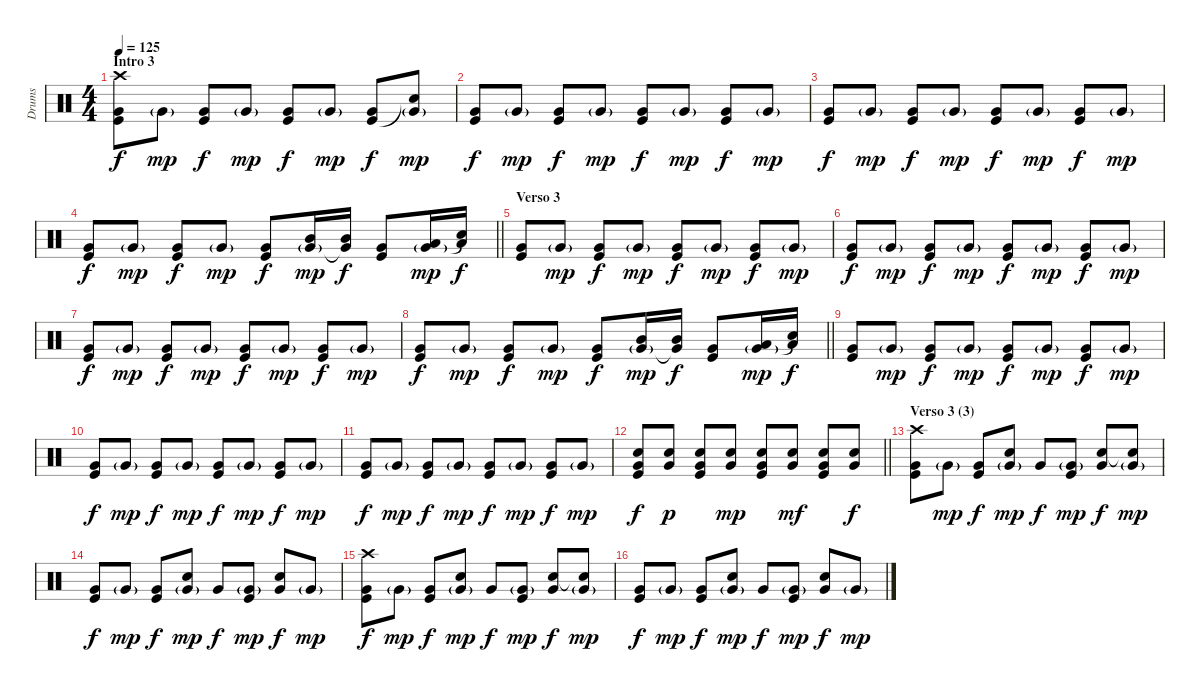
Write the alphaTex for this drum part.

\track ("Drums" "Drums") {instrument percussion}
\staff {score}
\articulation defaults
\ts (4 4)
\section ("" "Intro 3")
\tempo 125
\clef neutral
\ks c
("Very Low Tom (hit)" "Kick (hit)" "Crash high (hit)").8{dy f} "Very Low Tom (hit)"{g}.8{dy mp} ("Very Low Tom (hit)" "Kick (hit)").8{dy f} "Very Low Tom (hit)"{g}.8{dy mp} ("Very Low Tom (hit)" "Kick (hit)").8{dy f} "Very Low Tom (hit)"{g}.8{dy mp} ("Very Low Tom (hit)" "Kick (hit)").8{dy f} ("Very Low Tom (hit)"{g} "Snare (hit)"{t}).8{dy mp} |
("Very Low Tom (hit)" "Kick (hit)").8{dy f} "Very Low Tom (hit)"{g}.8{dy mp} ("Very Low Tom (hit)" "Kick (hit)").8{dy f} "Very Low Tom (hit)"{g}.8{dy mp} ("Very Low Tom (hit)" "Kick (hit)").8{dy f} "Very Low Tom (hit)"{g}.8{dy mp} ("Very Low Tom (hit)" "Kick (hit)").8{dy f} "Very Low Tom (hit)"{g}.8{dy mp} |
("Very Low Tom (hit)" "Kick (hit)").8{dy f} "Very Low Tom (hit)"{g}.8{dy mp} ("Very Low Tom (hit)" "Kick (hit)").8{dy f} "Very Low Tom (hit)"{g}.8{dy mp} ("Very Low Tom (hit)" "Kick (hit)").8{dy f} "Very Low Tom (hit)"{g}.8{dy mp} ("Very Low Tom (hit)" "Kick (hit)").8{dy f} "Very Low Tom (hit)"{g}.8{dy mp} |
\barLineRight lightlight
("Very Low Tom (hit)" "Kick (hit)").8{dy f} "Very Low Tom (hit)"{g}.8{dy mp} ("Very Low Tom (hit)" "Kick (hit)").8{dy f} "Very Low Tom (hit)"{g}.8{dy mp} ("Very Low Tom (hit)" "Kick (hit)").8{dy f} ("Very Low Tom (hit)"{g} "Mid Tom (hit)").16{dy mp} ("Very Low Tom (hit)"{t} "Mid Tom (hit)").16{dy f} ("Very Low Tom (hit)" "Kick (hit)").8 ("Very Low Tom (hit)"{g} "Low Tom (hit)").16{dy mp} ("Snare (hit)"{t} "Low Tom (hit)").16{dy f} |
\section ("" "Verso 3")
("Very Low Tom (hit)" "Kick (hit)").8 "Very Low Tom (hit)"{g}.8{dy mp} ("Very Low Tom (hit)" "Kick (hit)").8{dy f} "Very Low Tom (hit)"{g}.8{dy mp} ("Very Low Tom (hit)" "Kick (hit)").8{dy f} "Very Low Tom (hit)"{g}.8{dy mp} ("Very Low Tom (hit)" "Kick (hit)").8{dy f} "Very Low Tom (hit)"{g}.8{dy mp} |
("Very Low Tom (hit)" "Kick (hit)").8{dy f} "Very Low Tom (hit)"{g}.8{dy mp} ("Very Low Tom (hit)" "Kick (hit)").8{dy f} "Very Low Tom (hit)"{g}.8{dy mp} ("Very Low Tom (hit)" "Kick (hit)").8{dy f} "Very Low Tom (hit)"{g}.8{dy mp} ("Very Low Tom (hit)" "Kick (hit)").8{dy f} "Very Low Tom (hit)"{g}.8{dy mp} |
("Very Low Tom (hit)" "Kick (hit)").8{dy f} "Very Low Tom (hit)"{g}.8{dy mp} ("Very Low Tom (hit)" "Kick (hit)").8{dy f} "Very Low Tom (hit)"{g}.8{dy mp} ("Very Low Tom (hit)" "Kick (hit)").8{dy f} "Very Low Tom (hit)"{g}.8{dy mp} ("Very Low Tom (hit)" "Kick (hit)").8{dy f} "Very Low Tom (hit)"{g}.8{dy mp} |
\barLineRight lightlight
("Very Low Tom (hit)" "Kick (hit)").8{dy f} "Very Low Tom (hit)"{g}.8{dy mp} ("Very Low Tom (hit)" "Kick (hit)").8{dy f} "Very Low Tom (hit)"{g}.8{dy mp} ("Very Low Tom (hit)" "Kick (hit)").8{dy f} ("Very Low Tom (hit)"{g} "Mid Tom (hit)").16{dy mp} ("Very Low Tom (hit)"{t} "Mid Tom (hit)").16{dy f} ("Very Low Tom (hit)" "Kick (hit)").8 ("Very Low Tom (hit)"{g} "Low Tom (hit)").16{dy mp} ("Snare (hit)"{t} "Low Tom (hit)").16{dy f} |
("Very Low Tom (hit)" "Kick (hit)").8 "Very Low Tom (hit)"{g}.8{dy mp} ("Very Low Tom (hit)" "Kick (hit)").8{dy f} "Very Low Tom (hit)"{g}.8{dy mp} ("Very Low Tom (hit)" "Kick (hit)").8{dy f} "Very Low Tom (hit)"{g}.8{dy mp} ("Very Low Tom (hit)" "Kick (hit)").8{dy f} "Very Low Tom (hit)"{g}.8{dy mp} |
("Very Low Tom (hit)" "Kick (hit)").8{dy f} "Very Low Tom (hit)"{g}.8{dy mp} ("Very Low Tom (hit)" "Kick (hit)").8{dy f} "Very Low Tom (hit)"{g}.8{dy mp} ("Very Low Tom (hit)" "Kick (hit)").8{dy f} "Very Low Tom (hit)"{g}.8{dy mp} ("Very Low Tom (hit)" "Kick (hit)").8{dy f} "Very Low Tom (hit)"{g}.8{dy mp} |
("Very Low Tom (hit)" "Kick (hit)").8{dy f} "Very Low Tom (hit)"{g}.8{dy mp} ("Very Low Tom (hit)" "Kick (hit)").8{dy f} "Very Low Tom (hit)"{g}.8{dy mp} ("Very Low Tom (hit)" "Kick (hit)").8{dy f} "Very Low Tom (hit)"{g}.8{dy mp} ("Very Low Tom (hit)" "Kick (hit)").8{dy f} "Very Low Tom (hit)"{g}.8{dy mp} |
\barLineRight lightlight
("Very Low Tom (hit)" "Electric Snare (hit)" "Kick (hit)").8{dy f} ("Very Low Tom (hit)" "Electric Snare (hit)").8{dy p} ("Very Low Tom (hit)" "Electric Snare (hit)" "Kick (hit)").8 ("Very Low Tom (hit)" "Electric Snare (hit)").8{dy mp} ("Very Low Tom (hit)" "Electric Snare (hit)" "Kick (hit)").8 ("Very Low Tom (hit)" "Electric Snare (hit)").8{dy mf} ("Very Low Tom (hit)" "Electric Snare (hit)" "Kick (hit)").8 ("Very Low Tom (hit)" "Electric Snare (hit)").8{dy f} |
\section ("" "Verso 3 (3)")
("Very Low Tom (hit)" "Kick (hit)" "Crash high (hit)").8 "Very Low Tom (hit)"{g}.8{dy mp} ("Very Low Tom (hit)" "Kick (hit)").8{dy f} ("Very Low Tom (hit)"{g} "Electric Snare (hit)").8{dy mp} "Very Low Tom (hit)".8{dy f} ("Very Low Tom (hit)"{g} "Kick (hit)").8{dy mp} ("Very Low Tom (hit)" "Electric Snare (hit)").8{dy f} ("Very Low Tom (hit)"{g} "Snare (hit)"{t}).8{dy mp} |
("Very Low Tom (hit)" "Kick (hit)").8{dy f} "Very Low Tom (hit)"{g}.8{dy mp} ("Very Low Tom (hit)" "Kick (hit)").8{dy f} ("Very Low Tom (hit)"{g} "Electric Snare (hit)").8{dy mp} "Very Low Tom (hit)".8{dy f} ("Very Low Tom (hit)"{g} "Kick (hit)").8{dy mp} ("Very Low Tom (hit)" "Electric Snare (hit)").8{dy f} "Very Low Tom (hit)"{g}.8{dy mp} |
("Very Low Tom (hit)" "Kick (hit)" "Crash high (hit)").8{dy f} "Very Low Tom (hit)"{g}.8{dy mp} ("Very Low Tom (hit)" "Kick (hit)").8{dy f} ("Very Low Tom (hit)"{g} "Electric Snare (hit)").8{dy mp} "Very Low Tom (hit)".8{dy f} ("Very Low Tom (hit)"{g} "Kick (hit)").8{dy mp} ("Very Low Tom (hit)" "Electric Snare (hit)").8{dy f} ("Very Low Tom (hit)"{g} "Snare (hit)"{t}).8{dy mp} |
("Very Low Tom (hit)" "Kick (hit)").8{dy f} "Very Low Tom (hit)"{g}.8{dy mp} ("Very Low Tom (hit)" "Kick (hit)").8{dy f} ("Very Low Tom (hit)"{g} "Electric Snare (hit)").8{dy mp} "Very Low Tom (hit)".8{dy f} ("Very Low Tom (hit)"{g} "Kick (hit)").8{dy mp} ("Very Low Tom (hit)" "Electric Snare (hit)").8{dy f} "Very Low Tom (hit)"{g}.8{dy mp}
